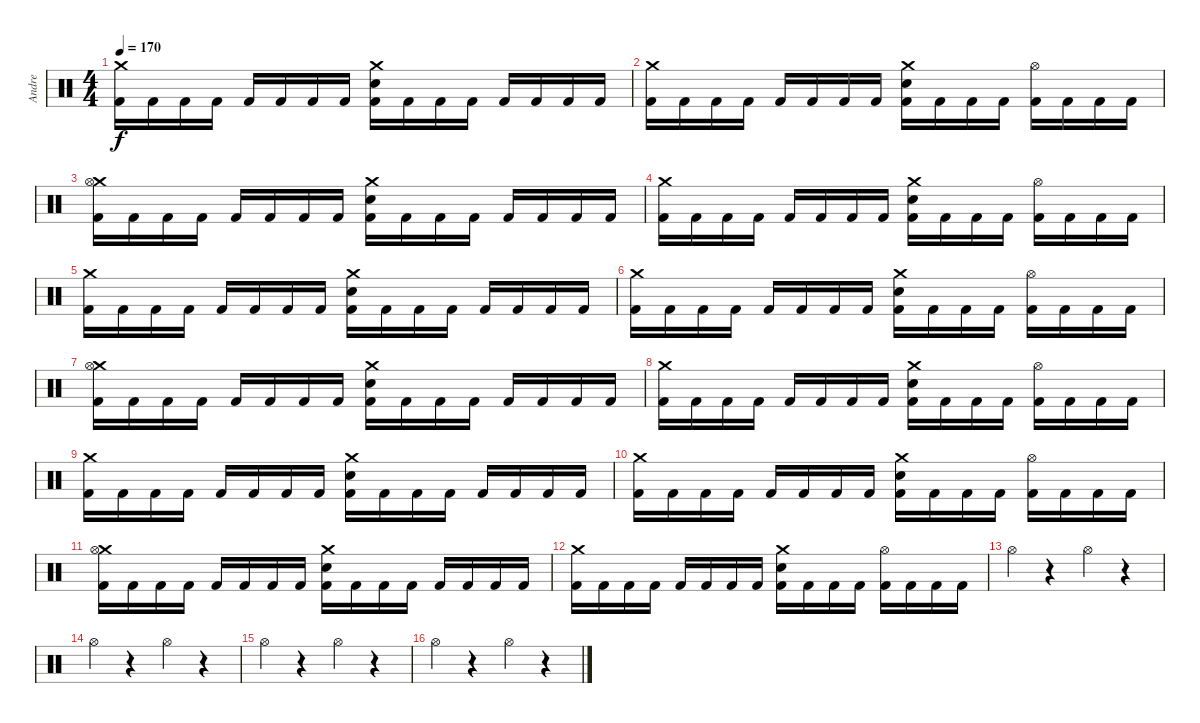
\track ("Andre" "Andre") {instrument percussion}
\staff {score}
\articulation defaults
\ts (4 4)
\tempo 170
\clef neutral
\ks c
("Crash medium (hit)" "Kick (hit) 2").16{dy f} "Kick (hit) 2".16 "Kick (hit) 2".16 "Kick (hit) 2".16 "Kick (hit) 2".16 "Kick (hit) 2".16 "Kick (hit) 2".16 "Kick (hit) 2".16 ("Crash medium (hit)" "Snare (hit) 2" "Kick (hit) 2").16 "Kick (hit) 2".16 "Kick (hit) 2".16 "Kick (hit) 2".16 "Kick (hit) 2".16 "Kick (hit) 2".16 "Kick (hit) 2".16 "Kick (hit) 2".16 |
("Crash medium (hit)" "Kick (hit) 2").16 "Kick (hit) 2".16 "Kick (hit) 2".16 "Kick (hit) 2".16 "Kick (hit) 2".16 "Kick (hit) 2".16 "Kick (hit) 2".16 "Kick (hit) 2".16 ("Crash medium (hit)" "Snare (hit) 2" "Kick (hit) 2").16 "Kick (hit) 2".16 "Kick (hit) 2".16 "Kick (hit) 2".16 ("Hi-Hat (open)" "Kick (hit) 2").16 "Kick (hit) 2".16 "Kick (hit) 2".16 "Kick (hit) 2".16 |
("Crash medium (hit)" "Hi-Hat (open)" "Kick (hit) 2").16 "Kick (hit) 2".16 "Kick (hit) 2".16 "Kick (hit) 2".16 "Kick (hit) 2".16 "Kick (hit) 2".16 "Kick (hit) 2".16 "Kick (hit) 2".16 ("Crash medium (hit)" "Snare (hit) 2" "Kick (hit) 2").16 "Kick (hit) 2".16 "Kick (hit) 2".16 "Kick (hit) 2".16 "Kick (hit) 2".16 "Kick (hit) 2".16 "Kick (hit) 2".16 "Kick (hit) 2".16 |
("Crash medium (hit)" "Kick (hit) 2").16 "Kick (hit) 2".16 "Kick (hit) 2".16 "Kick (hit) 2".16 "Kick (hit) 2".16 "Kick (hit) 2".16 "Kick (hit) 2".16 "Kick (hit) 2".16 ("Crash medium (hit)" "Snare (hit) 2" "Kick (hit) 2").16 "Kick (hit) 2".16 "Kick (hit) 2".16 "Kick (hit) 2".16 ("Hi-Hat (open)" "Kick (hit) 2").16 "Kick (hit) 2".16 "Kick (hit) 2".16 "Kick (hit) 2".16 |
("Crash medium (hit)" "Kick (hit) 2").16 "Kick (hit) 2".16 "Kick (hit) 2".16 "Kick (hit) 2".16 "Kick (hit) 2".16 "Kick (hit) 2".16 "Kick (hit) 2".16 "Kick (hit) 2".16 ("Crash medium (hit)" "Snare (hit) 2" "Kick (hit) 2").16 "Kick (hit) 2".16 "Kick (hit) 2".16 "Kick (hit) 2".16 "Kick (hit) 2".16 "Kick (hit) 2".16 "Kick (hit) 2".16 "Kick (hit) 2".16 |
("Crash medium (hit)" "Kick (hit) 2").16 "Kick (hit) 2".16 "Kick (hit) 2".16 "Kick (hit) 2".16 "Kick (hit) 2".16 "Kick (hit) 2".16 "Kick (hit) 2".16 "Kick (hit) 2".16 ("Crash medium (hit)" "Snare (hit) 2" "Kick (hit) 2").16 "Kick (hit) 2".16 "Kick (hit) 2".16 "Kick (hit) 2".16 ("Hi-Hat (open)" "Kick (hit) 2").16 "Kick (hit) 2".16 "Kick (hit) 2".16 "Kick (hit) 2".16 |
("Crash medium (hit)" "Hi-Hat (open)" "Kick (hit) 2").16 "Kick (hit) 2".16 "Kick (hit) 2".16 "Kick (hit) 2".16 "Kick (hit) 2".16 "Kick (hit) 2".16 "Kick (hit) 2".16 "Kick (hit) 2".16 ("Crash medium (hit)" "Snare (hit) 2" "Kick (hit) 2").16 "Kick (hit) 2".16 "Kick (hit) 2".16 "Kick (hit) 2".16 "Kick (hit) 2".16 "Kick (hit) 2".16 "Kick (hit) 2".16 "Kick (hit) 2".16 |
("Crash medium (hit)" "Kick (hit) 2").16 "Kick (hit) 2".16 "Kick (hit) 2".16 "Kick (hit) 2".16 "Kick (hit) 2".16 "Kick (hit) 2".16 "Kick (hit) 2".16 "Kick (hit) 2".16 ("Crash medium (hit)" "Snare (hit) 2" "Kick (hit) 2").16 "Kick (hit) 2".16 "Kick (hit) 2".16 "Kick (hit) 2".16 ("Hi-Hat (open)" "Kick (hit) 2").16 "Kick (hit) 2".16 "Kick (hit) 2".16 "Kick (hit) 2".16 |
("Crash medium (hit)" "Kick (hit) 2").16 "Kick (hit) 2".16 "Kick (hit) 2".16 "Kick (hit) 2".16 "Kick (hit) 2".16 "Kick (hit) 2".16 "Kick (hit) 2".16 "Kick (hit) 2".16 ("Crash medium (hit)" "Snare (hit) 2" "Kick (hit) 2").16 "Kick (hit) 2".16 "Kick (hit) 2".16 "Kick (hit) 2".16 "Kick (hit) 2".16 "Kick (hit) 2".16 "Kick (hit) 2".16 "Kick (hit) 2".16 |
("Crash medium (hit)" "Kick (hit) 2").16 "Kick (hit) 2".16 "Kick (hit) 2".16 "Kick (hit) 2".16 "Kick (hit) 2".16 "Kick (hit) 2".16 "Kick (hit) 2".16 "Kick (hit) 2".16 ("Crash medium (hit)" "Snare (hit) 2" "Kick (hit) 2").16 "Kick (hit) 2".16 "Kick (hit) 2".16 "Kick (hit) 2".16 ("Hi-Hat (open)" "Kick (hit) 2").16 "Kick (hit) 2".16 "Kick (hit) 2".16 "Kick (hit) 2".16 |
("Crash medium (hit)" "Hi-Hat (open)" "Kick (hit) 2").16 "Kick (hit) 2".16 "Kick (hit) 2".16 "Kick (hit) 2".16 "Kick (hit) 2".16 "Kick (hit) 2".16 "Kick (hit) 2".16 "Kick (hit) 2".16 ("Crash medium (hit)" "Snare (hit) 2" "Kick (hit) 2").16 "Kick (hit) 2".16 "Kick (hit) 2".16 "Kick (hit) 2".16 "Kick (hit) 2".16 "Kick (hit) 2".16 "Kick (hit) 2".16 "Kick (hit) 2".16 |
("Crash medium (hit)" "Kick (hit) 2").16 "Kick (hit) 2".16 "Kick (hit) 2".16 "Kick (hit) 2".16 "Kick (hit) 2".16 "Kick (hit) 2".16 "Kick (hit) 2".16 "Kick (hit) 2".16 ("Crash medium (hit)" "Snare (hit) 2" "Kick (hit) 2").16 "Kick (hit) 2".16 "Kick (hit) 2".16 "Kick (hit) 2".16 ("Hi-Hat (open)" "Kick (hit) 2").16 "Kick (hit) 2".16 "Kick (hit) 2".16 "Kick (hit) 2".16 |
"Hi-Hat (open)".4 r.4 "Hi-Hat (open)".4 r.4 |
"Hi-Hat (open)".4 r.4 "Hi-Hat (open)".4 r.4 |
"Hi-Hat (open)".4 r.4 "Hi-Hat (open)".4 r.4 |
"Hi-Hat (open)".4 r.4 "Hi-Hat (open)".4 r.4
